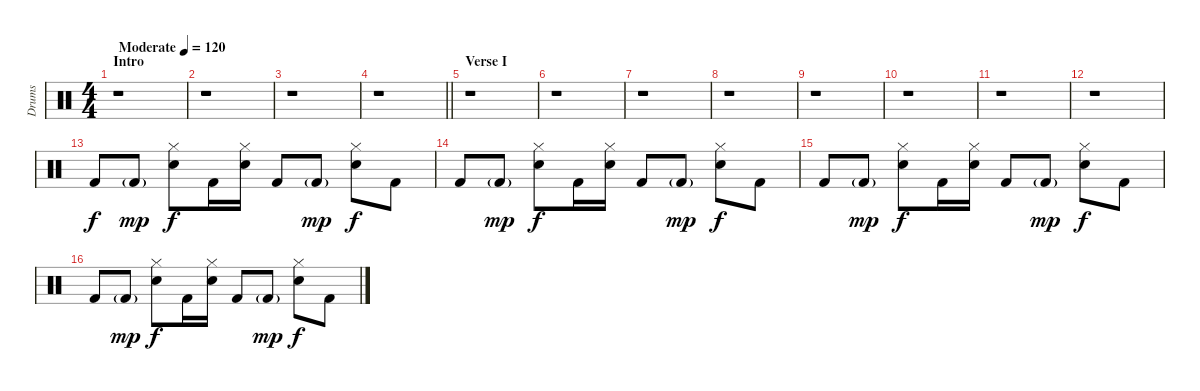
\track ("Drums" "Drums") {instrument percussion}
\staff {score}
\articulation defaults
\ts (4 4)
\section ("" "Intro")
\tempo (120 "Moderate")
\clef neutral
\ks c
r.1{dy f} |
r.1 |
r.1 |
\barLineRight lightlight
r.1 |
\section ("" "Verse I")
r.1 |
r.1 |
r.1 |
r.1 |
r.1 |
r.1 |
r.1 |
r.1 |
"Kick (hit) 2".8 "Kick (hit) 2"{g}.8{dy mp} ("Hi-Hat (closed)" "Snare (hit) 2").8{dy f} "Kick (hit) 2".16 ("Hi-Hat (closed)" "Snare (hit) 2").16 "Kick (hit) 2".8 "Kick (hit) 2"{g}.8{dy mp} ("Hi-Hat (closed)" "Snare (hit) 2").8{dy f} "Kick (hit) 2".8 |
"Kick (hit) 2".8 "Kick (hit) 2"{g}.8{dy mp} ("Hi-Hat (closed)" "Snare (hit) 2").8{dy f} "Kick (hit) 2".16 ("Hi-Hat (closed)" "Snare (hit) 2").16 "Kick (hit) 2".8 "Kick (hit) 2"{g}.8{dy mp} ("Hi-Hat (closed)" "Snare (hit) 2").8{dy f} "Kick (hit) 2".8 |
"Kick (hit) 2".8 "Kick (hit) 2"{g}.8{dy mp} ("Hi-Hat (closed)" "Snare (hit) 2").8{dy f} "Kick (hit) 2".16 ("Hi-Hat (closed)" "Snare (hit) 2").16 "Kick (hit) 2".8 "Kick (hit) 2"{g}.8{dy mp} ("Hi-Hat (closed)" "Snare (hit) 2").8{dy f} "Kick (hit) 2".8 |
"Kick (hit) 2".8 "Kick (hit) 2"{g}.8{dy mp} ("Hi-Hat (closed)" "Snare (hit) 2").8{dy f} "Kick (hit) 2".16 ("Hi-Hat (closed)" "Snare (hit) 2").16 "Kick (hit) 2".8 "Kick (hit) 2"{g}.8{dy mp} ("Hi-Hat (closed)" "Snare (hit) 2").8{dy f} "Kick (hit) 2".8
